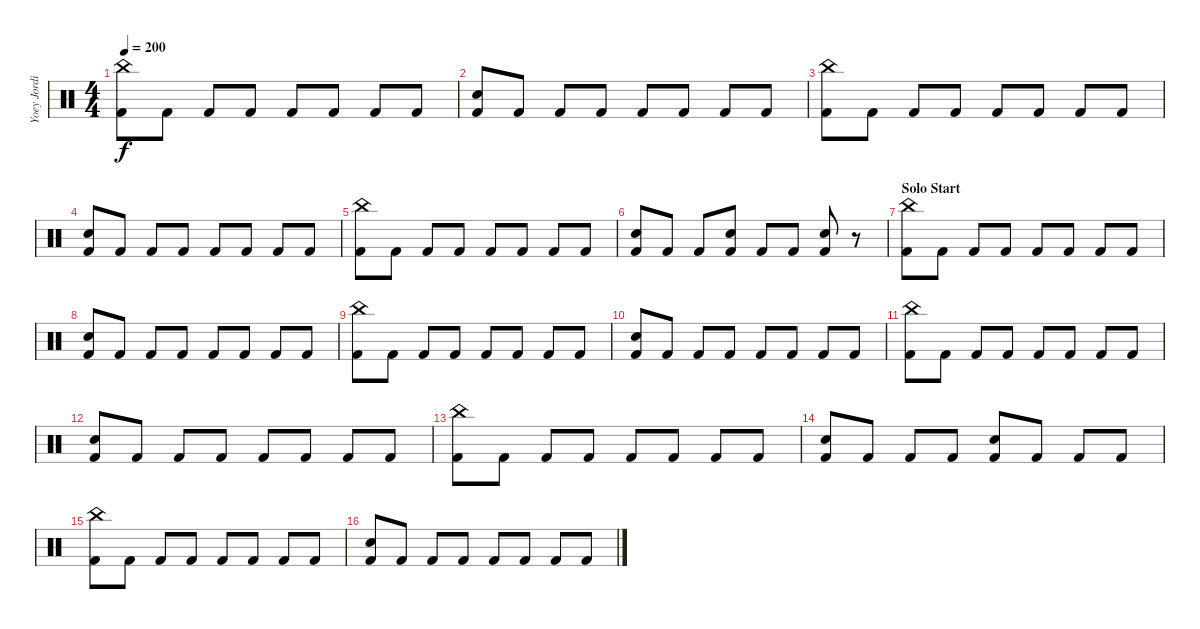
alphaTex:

\track ("Yoey Jordison" "Yoey Jordi") {instrument percussion}
\staff {score}
\articulation defaults
\ts (4 4)
\tempo 200
\clef neutral
\ks c
("Kick (hit) 2" "China (hit)").8{dy f} "Kick (hit) 2".8 "Kick (hit) 2".8 "Kick (hit) 2".8 "Kick (hit) 2".8 "Kick (hit) 2".8 "Kick (hit) 2".8 "Kick (hit) 2".8 |
("Kick (hit) 2" "Snare (hit) 2").8 "Kick (hit) 2".8 "Kick (hit) 2".8 "Kick (hit) 2".8 "Kick (hit) 2".8 "Kick (hit) 2".8 "Kick (hit) 2".8 "Kick (hit) 2".8 |
("Kick (hit) 2" "China (hit)").8 "Kick (hit) 2".8 "Kick (hit) 2".8 "Kick (hit) 2".8 "Kick (hit) 2".8 "Kick (hit) 2".8 "Kick (hit) 2".8 "Kick (hit) 2".8 |
("Kick (hit) 2" "Snare (hit) 2").8 "Kick (hit) 2".8 "Kick (hit) 2".8 "Kick (hit) 2".8 "Kick (hit) 2".8 "Kick (hit) 2".8 "Kick (hit) 2".8 "Kick (hit) 2".8 |
("Kick (hit) 2" "China (hit)").8 "Kick (hit) 2".8 "Kick (hit) 2".8 "Kick (hit) 2".8 "Kick (hit) 2".8 "Kick (hit) 2".8 "Kick (hit) 2".8 "Kick (hit) 2".8 |
("Kick (hit) 2" "Snare (hit) 2").8 "Kick (hit) 2".8 "Kick (hit) 2".8 ("Kick (hit) 2" "Snare (hit) 2").8 "Kick (hit) 2".8 "Kick (hit) 2".8 ("Kick (hit) 2" "Snare (hit) 2").8 r.8 |
\section ("" "Solo Start")
("Kick (hit) 2" "China (hit)").8 "Kick (hit) 2".8 "Kick (hit) 2".8 "Kick (hit) 2".8 "Kick (hit) 2".8 "Kick (hit) 2".8 "Kick (hit) 2".8 "Kick (hit) 2".8 |
("Kick (hit) 2" "Snare (hit) 2").8 "Kick (hit) 2".8 "Kick (hit) 2".8 "Kick (hit) 2".8 "Kick (hit) 2".8 "Kick (hit) 2".8 "Kick (hit) 2".8 "Kick (hit) 2".8 |
("Kick (hit) 2" "China (hit)").8 "Kick (hit) 2".8 "Kick (hit) 2".8 "Kick (hit) 2".8 "Kick (hit) 2".8 "Kick (hit) 2".8 "Kick (hit) 2".8 "Kick (hit) 2".8 |
("Kick (hit) 2" "Snare (hit) 2").8 "Kick (hit) 2".8 "Kick (hit) 2".8 "Kick (hit) 2".8 "Kick (hit) 2".8 "Kick (hit) 2".8 "Kick (hit) 2".8 "Kick (hit) 2".8 |
("Kick (hit) 2" "China (hit)").8 "Kick (hit) 2".8 "Kick (hit) 2".8 "Kick (hit) 2".8 "Kick (hit) 2".8 "Kick (hit) 2".8 "Kick (hit) 2".8 "Kick (hit) 2".8 |
("Kick (hit) 2" "Snare (hit) 2").8 "Kick (hit) 2".8 "Kick (hit) 2".8 "Kick (hit) 2".8 "Kick (hit) 2".8 "Kick (hit) 2".8 "Kick (hit) 2".8 "Kick (hit) 2".8 |
("Kick (hit) 2" "China (hit)").8 "Kick (hit) 2".8 "Kick (hit) 2".8 "Kick (hit) 2".8 "Kick (hit) 2".8 "Kick (hit) 2".8 "Kick (hit) 2".8 "Kick (hit) 2".8 |
("Kick (hit) 2" "Snare (hit) 2").8 "Kick (hit) 2".8 "Kick (hit) 2".8 "Kick (hit) 2".8 ("Kick (hit) 2" "Snare (hit) 2").8 "Kick (hit) 2".8 "Kick (hit) 2".8 "Kick (hit) 2".8 |
("Kick (hit) 2" "China (hit)").8 "Kick (hit) 2".8 "Kick (hit) 2".8 "Kick (hit) 2".8 "Kick (hit) 2".8 "Kick (hit) 2".8 "Kick (hit) 2".8 "Kick (hit) 2".8 |
("Kick (hit) 2" "Snare (hit) 2").8 "Kick (hit) 2".8 "Kick (hit) 2".8 "Kick (hit) 2".8 "Kick (hit) 2".8 "Kick (hit) 2".8 "Kick (hit) 2".8 "Kick (hit) 2".8
